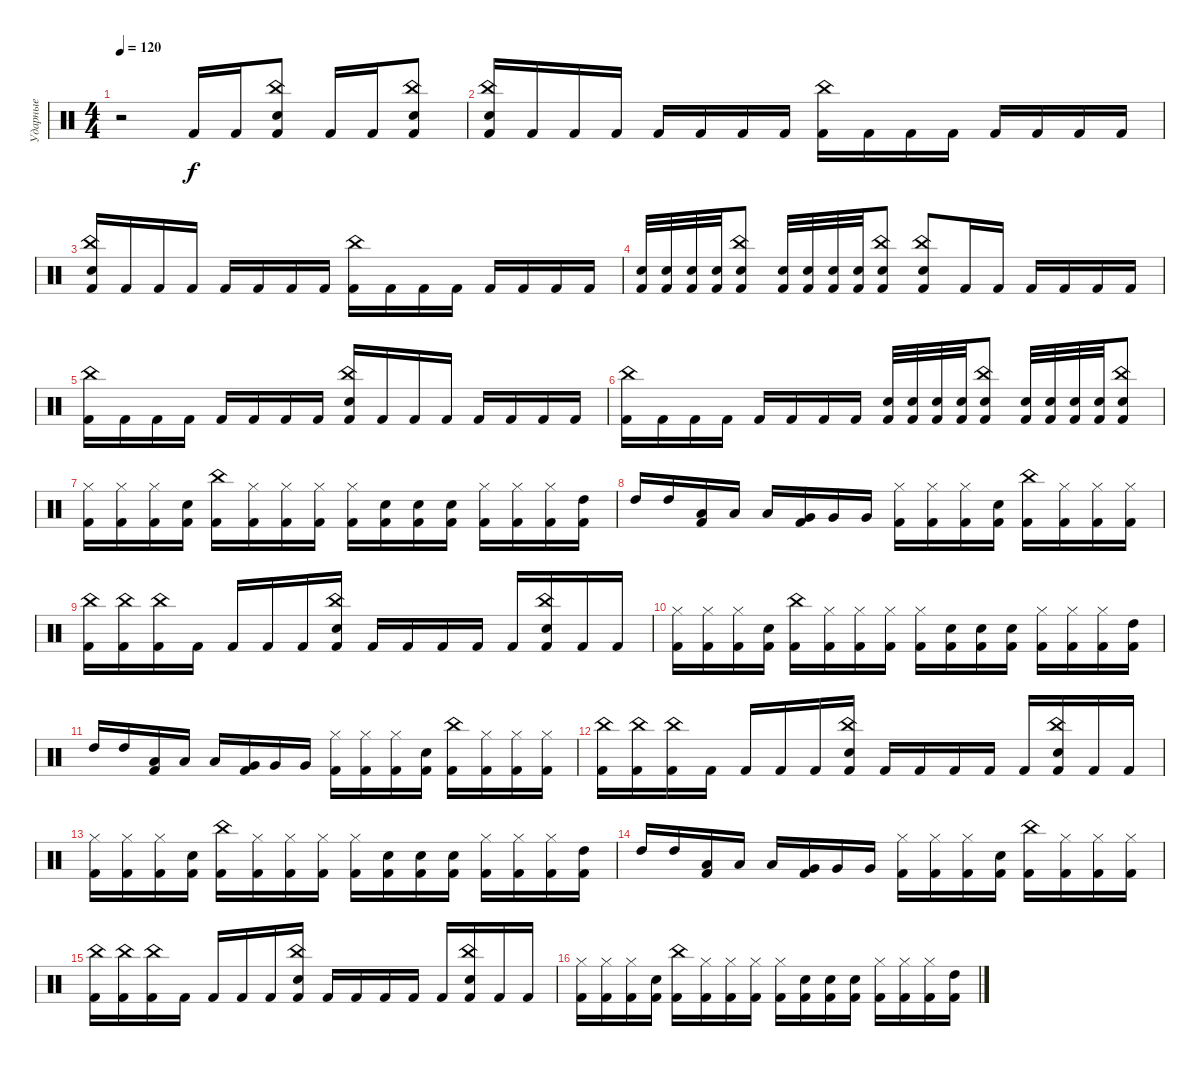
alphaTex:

\track ("Ударные" "Ударные") {instrument percussion}
\staff {score}
\articulation defaults
\ts (4 4)
\tempo 120
\clef neutral
\ks c
r.2{dy f} "Kick (hit) 2".16 "Kick (hit) 2".16 ("China (hit)" "Snare (hit) 2" "Kick (hit) 2").8 "Kick (hit) 2".16 "Kick (hit) 2".16 ("China (hit)" "Snare (hit) 2" "Kick (hit) 2").8 |
("China (hit)" "Snare (hit) 2" "Kick (hit) 2").16 "Kick (hit) 2".16 "Kick (hit) 2".16 "Kick (hit) 2".16 "Kick (hit) 2".16 "Kick (hit) 2".16 "Kick (hit) 2".16 "Kick (hit) 2".16 ("China (hit)" "Kick (hit) 2").16 "Kick (hit) 2".16 "Kick (hit) 2".16 "Kick (hit) 2".16 "Kick (hit) 2".16 "Kick (hit) 2".16 "Kick (hit) 2".16 "Kick (hit) 2".16 |
("China (hit)" "Snare (hit) 2" "Kick (hit) 2").16 "Kick (hit) 2".16 "Kick (hit) 2".16 "Kick (hit) 2".16 "Kick (hit) 2".16 "Kick (hit) 2".16 "Kick (hit) 2".16 "Kick (hit) 2".16 ("China (hit)" "Kick (hit) 2").16 "Kick (hit) 2".16 "Kick (hit) 2".16 "Kick (hit) 2".16 "Kick (hit) 2".16 "Kick (hit) 2".16 "Kick (hit) 2".16 "Kick (hit) 2".16 |
("Snare (hit) 2" "Kick (hit) 2").32 ("Snare (hit) 2" "Kick (hit) 2").32 ("Snare (hit) 2" "Kick (hit) 2").32 ("Snare (hit) 2" "Kick (hit) 2").32 ("China (hit)" "Snare (hit) 2" "Kick (hit) 2").8 ("Snare (hit) 2" "Kick (hit) 2").32 ("Snare (hit) 2" "Kick (hit) 2").32 ("Snare (hit) 2" "Kick (hit) 2").32 ("Snare (hit) 2" "Kick (hit) 2").32 ("China (hit)" "Snare (hit) 2" "Kick (hit) 2").8 ("China (hit)" "Snare (hit) 2" "Kick (hit) 2").8 "Kick (hit) 2".16 "Kick (hit) 2".16 "Kick (hit) 2".16 "Kick (hit) 2".16 "Kick (hit) 2".16 "Kick (hit) 2".16 |
("China (hit)" "Kick (hit) 2").16 "Kick (hit) 2".16 "Kick (hit) 2".16 "Kick (hit) 2".16 "Kick (hit) 2".16 "Kick (hit) 2".16 "Kick (hit) 2".16 "Kick (hit) 2".16 ("China (hit)" "Snare (hit) 2" "Kick (hit) 2").16 "Kick (hit) 2".16 "Kick (hit) 2".16 "Kick (hit) 2".16 "Kick (hit) 2".16 "Kick (hit) 2".16 "Kick (hit) 2".16 "Kick (hit) 2".16 |
("China (hit)" "Kick (hit) 2").16 "Kick (hit) 2".16 "Kick (hit) 2".16 "Kick (hit) 2".16 "Kick (hit) 2".16 "Kick (hit) 2".16 "Kick (hit) 2".16 "Kick (hit) 2".16 ("Snare (hit) 2" "Kick (hit) 2").32 ("Snare (hit) 2" "Kick (hit) 2").32 ("Snare (hit) 2" "Kick (hit) 2").32 ("Snare (hit) 2" "Kick (hit) 2").32 ("China (hit)" "Snare (hit) 2" "Kick (hit) 2").8 ("Snare (hit) 2" "Kick (hit) 2").32 ("Snare (hit) 2" "Kick (hit) 2").32 ("Snare (hit) 2" "Kick (hit) 2").32 ("Snare (hit) 2" "Kick (hit) 2").32 ("China (hit)" "Snare (hit) 2" "Kick (hit) 2").8 |
("Hi-Hat (closed)" "Kick (hit) 2").16 ("Hi-Hat (closed)" "Kick (hit) 2").16 ("Hi-Hat (closed)" "Kick (hit) 2").16 ("Snare (hit) 2" "Kick (hit) 2").16 ("China (hit)" "Kick (hit) 2").16 ("Hi-Hat (closed)" "Kick (hit) 2").16 ("Hi-Hat (closed)" "Kick (hit) 2").16 ("Hi-Hat (closed)" "Kick (hit) 2").16 ("Hi-Hat (closed)" "Kick (hit) 2").16 ("Snare (hit) 2" "Kick (hit) 2").16 ("Snare (hit) 2" "Kick (hit) 2").16 ("Snare (hit) 2" "Kick (hit) 2").16 ("Hi-Hat (closed)" "Kick (hit) 2").16 ("Hi-Hat (closed)" "Kick (hit) 2").16 ("Hi-Hat (closed)" "Kick (hit) 2").16 ("High Tom (hit)" "Kick (hit) 2").16 |
"High Tom (hit)".16 "High Tom (hit)".16 ("Low Tom (hit)" "Kick (hit) 2").16 "Low Tom (hit)".16 "Low Tom (hit)".16 ("Very Low Tom (hit)" "Kick (hit) 2").16 "Very Low Tom (hit)".16 "Very Low Tom (hit)".16 ("Hi-Hat (closed)" "Kick (hit) 2").16 ("Hi-Hat (closed)" "Kick (hit) 2").16 ("Hi-Hat (closed)" "Kick (hit) 2").16 ("Snare (hit) 2" "Kick (hit) 2").16 ("China (hit)" "Kick (hit) 2").16 ("Hi-Hat (closed)" "Kick (hit) 2").16 ("Hi-Hat (closed)" "Kick (hit) 2").16 ("Hi-Hat (closed)" "Kick (hit) 2").16 |
("China (hit)" "Kick (hit) 2").16 ("China (hit)" "Kick (hit) 2").16 ("China (hit)" "Kick (hit) 2").16 "Kick (hit) 2".16 "Kick (hit) 2".16 "Kick (hit) 2".16 "Kick (hit) 2".16 ("China (hit)" "Snare (hit) 2" "Kick (hit) 2").16 "Kick (hit) 2".16 "Kick (hit) 2".16 "Kick (hit) 2".16 "Kick (hit) 2".16 "Kick (hit) 2".16 ("China (hit)" "Snare (hit) 2" "Kick (hit) 2").16 "Kick (hit) 2".16 "Kick (hit) 2".16 |
("Hi-Hat (closed)" "Kick (hit) 2").16 ("Hi-Hat (closed)" "Kick (hit) 2").16 ("Hi-Hat (closed)" "Kick (hit) 2").16 ("Snare (hit) 2" "Kick (hit) 2").16 ("China (hit)" "Kick (hit) 2").16 ("Hi-Hat (closed)" "Kick (hit) 2").16 ("Hi-Hat (closed)" "Kick (hit) 2").16 ("Hi-Hat (closed)" "Kick (hit) 2").16 ("Hi-Hat (closed)" "Kick (hit) 2").16 ("Snare (hit) 2" "Kick (hit) 2").16 ("Snare (hit) 2" "Kick (hit) 2").16 ("Snare (hit) 2" "Kick (hit) 2").16 ("Hi-Hat (closed)" "Kick (hit) 2").16 ("Hi-Hat (closed)" "Kick (hit) 2").16 ("Hi-Hat (closed)" "Kick (hit) 2").16 ("High Tom (hit)" "Kick (hit) 2").16 |
"High Tom (hit)".16 "High Tom (hit)".16 ("Low Tom (hit)" "Kick (hit) 2").16 "Low Tom (hit)".16 "Low Tom (hit)".16 ("Very Low Tom (hit)" "Kick (hit) 2").16 "Very Low Tom (hit)".16 "Very Low Tom (hit)".16 ("Hi-Hat (closed)" "Kick (hit) 2").16 ("Hi-Hat (closed)" "Kick (hit) 2").16 ("Hi-Hat (closed)" "Kick (hit) 2").16 ("Snare (hit) 2" "Kick (hit) 2").16 ("China (hit)" "Kick (hit) 2").16 ("Hi-Hat (closed)" "Kick (hit) 2").16 ("Hi-Hat (closed)" "Kick (hit) 2").16 ("Hi-Hat (closed)" "Kick (hit) 2").16 |
("China (hit)" "Kick (hit) 2").16 ("China (hit)" "Kick (hit) 2").16 ("China (hit)" "Kick (hit) 2").16 "Kick (hit) 2".16 "Kick (hit) 2".16 "Kick (hit) 2".16 "Kick (hit) 2".16 ("China (hit)" "Snare (hit) 2" "Kick (hit) 2").16 "Kick (hit) 2".16 "Kick (hit) 2".16 "Kick (hit) 2".16 "Kick (hit) 2".16 "Kick (hit) 2".16 ("China (hit)" "Snare (hit) 2" "Kick (hit) 2").16 "Kick (hit) 2".16 "Kick (hit) 2".16 |
("Hi-Hat (closed)" "Kick (hit) 2").16 ("Hi-Hat (closed)" "Kick (hit) 2").16 ("Hi-Hat (closed)" "Kick (hit) 2").16 ("Snare (hit) 2" "Kick (hit) 2").16 ("China (hit)" "Kick (hit) 2").16 ("Hi-Hat (closed)" "Kick (hit) 2").16 ("Hi-Hat (closed)" "Kick (hit) 2").16 ("Hi-Hat (closed)" "Kick (hit) 2").16 ("Hi-Hat (closed)" "Kick (hit) 2").16 ("Snare (hit) 2" "Kick (hit) 2").16 ("Snare (hit) 2" "Kick (hit) 2").16 ("Snare (hit) 2" "Kick (hit) 2").16 ("Hi-Hat (closed)" "Kick (hit) 2").16 ("Hi-Hat (closed)" "Kick (hit) 2").16 ("Hi-Hat (closed)" "Kick (hit) 2").16 ("High Tom (hit)" "Kick (hit) 2").16 |
"High Tom (hit)".16 "High Tom (hit)".16 ("Low Tom (hit)" "Kick (hit) 2").16 "Low Tom (hit)".16 "Low Tom (hit)".16 ("Very Low Tom (hit)" "Kick (hit) 2").16 "Very Low Tom (hit)".16 "Very Low Tom (hit)".16 ("Hi-Hat (closed)" "Kick (hit) 2").16 ("Hi-Hat (closed)" "Kick (hit) 2").16 ("Hi-Hat (closed)" "Kick (hit) 2").16 ("Snare (hit) 2" "Kick (hit) 2").16 ("China (hit)" "Kick (hit) 2").16 ("Hi-Hat (closed)" "Kick (hit) 2").16 ("Hi-Hat (closed)" "Kick (hit) 2").16 ("Hi-Hat (closed)" "Kick (hit) 2").16 |
("China (hit)" "Kick (hit) 2").16 ("China (hit)" "Kick (hit) 2").16 ("China (hit)" "Kick (hit) 2").16 "Kick (hit) 2".16 "Kick (hit) 2".16 "Kick (hit) 2".16 "Kick (hit) 2".16 ("China (hit)" "Snare (hit) 2" "Kick (hit) 2").16 "Kick (hit) 2".16 "Kick (hit) 2".16 "Kick (hit) 2".16 "Kick (hit) 2".16 "Kick (hit) 2".16 ("China (hit)" "Snare (hit) 2" "Kick (hit) 2").16 "Kick (hit) 2".16 "Kick (hit) 2".16 |
("Hi-Hat (closed)" "Kick (hit) 2").16 ("Hi-Hat (closed)" "Kick (hit) 2").16 ("Hi-Hat (closed)" "Kick (hit) 2").16 ("Snare (hit) 2" "Kick (hit) 2").16 ("China (hit)" "Kick (hit) 2").16 ("Hi-Hat (closed)" "Kick (hit) 2").16 ("Hi-Hat (closed)" "Kick (hit) 2").16 ("Hi-Hat (closed)" "Kick (hit) 2").16 ("Hi-Hat (closed)" "Kick (hit) 2").16 ("Snare (hit) 2" "Kick (hit) 2").16 ("Snare (hit) 2" "Kick (hit) 2").16 ("Snare (hit) 2" "Kick (hit) 2").16 ("Hi-Hat (closed)" "Kick (hit) 2").16 ("Hi-Hat (closed)" "Kick (hit) 2").16 ("Hi-Hat (closed)" "Kick (hit) 2").16 ("High Tom (hit)" "Kick (hit) 2").16
